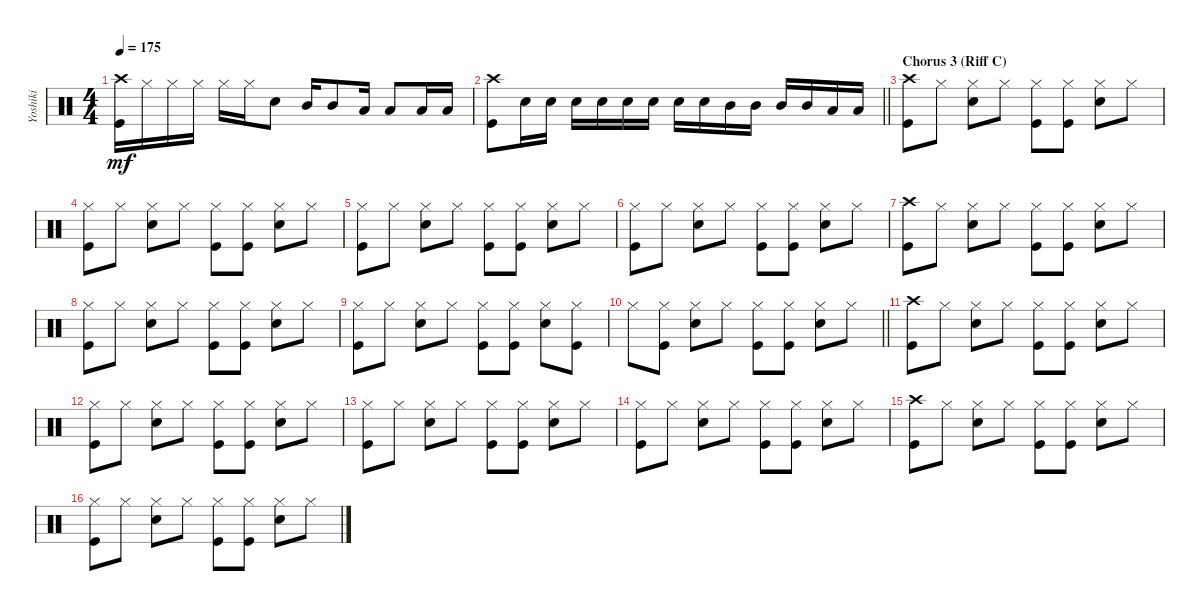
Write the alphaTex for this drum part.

\track ("Yoshiki" "Yoshiki") {instrument percussion}
\staff {score}
\articulation defaults
\ts (4 4)
\tempo 175
\clef neutral
\ks c
("Crash high (hit)" "Kick (hit)").16{dy mf} "Hi-Hat (closed)".16 "Hi-Hat (closed)".16 "Hi-Hat (closed)".16 "Hi-Hat (closed)".16 "Hi-Hat (closed)".16 "Snare (hit) 2".8 "Mid Tom (hit)".16 "Mid Tom (hit)".8 "Low Tom (hit)".16 "Low Tom (hit)".8 "Low Tom (hit)".16 "Low Tom (hit)".16 |
\barLineRight lightlight
("Crash high (hit)" "Kick (hit)").8 "Snare (hit) 2".16 "Snare (hit) 2".16 "Snare (hit) 2".16 "Snare (hit) 2".16 "Snare (hit) 2".16 "Snare (hit) 2".16 "Snare (hit) 2".16 "Snare (hit) 2".16 "Mid Tom (hit)".16 "Mid Tom (hit)".16 "Mid Tom (hit)".16 "Mid Tom (hit)".16 "Low Tom (hit)".16 "Low Tom (hit)".16 |
\section ("" "Chorus 3 (Riff C)")
("Crash high (hit)" "Kick (hit)").8 "Hi-Hat (closed)".8 ("Snare (hit) 2" "Hi-Hat (closed)").8 "Hi-Hat (closed)".8 ("Hi-Hat (closed)" "Kick (hit)").8 ("Hi-Hat (closed)" "Kick (hit)").8 ("Snare (hit) 2" "Hi-Hat (closed)").8 "Hi-Hat (closed)".8 |
("Hi-Hat (closed)" "Kick (hit)").8 "Hi-Hat (closed)".8 ("Snare (hit) 2" "Hi-Hat (closed)").8 "Hi-Hat (closed)".8 ("Hi-Hat (closed)" "Kick (hit)").8 ("Hi-Hat (closed)" "Kick (hit)").8 ("Snare (hit) 2" "Hi-Hat (closed)").8 "Hi-Hat (closed)".8 |
("Hi-Hat (closed)" "Kick (hit)").8 "Hi-Hat (closed)".8 ("Snare (hit) 2" "Hi-Hat (closed)").8 "Hi-Hat (closed)".8 ("Hi-Hat (closed)" "Kick (hit)").8 ("Hi-Hat (closed)" "Kick (hit)").8 ("Snare (hit) 2" "Hi-Hat (closed)").8 "Hi-Hat (closed)".8 |
("Hi-Hat (closed)" "Kick (hit)").8 "Hi-Hat (closed)".8 ("Snare (hit) 2" "Hi-Hat (closed)").8 "Hi-Hat (closed)".8 ("Hi-Hat (closed)" "Kick (hit)").8 ("Hi-Hat (closed)" "Kick (hit)").8 ("Snare (hit) 2" "Hi-Hat (closed)").8 "Hi-Hat (closed)".8 |
("Crash high (hit)" "Kick (hit)").8 "Hi-Hat (closed)".8 ("Snare (hit) 2" "Hi-Hat (closed)").8 "Hi-Hat (closed)".8 ("Hi-Hat (closed)" "Kick (hit)").8 ("Hi-Hat (closed)" "Kick (hit)").8 ("Snare (hit) 2" "Hi-Hat (closed)").8 "Hi-Hat (closed)".8 |
("Hi-Hat (closed)" "Kick (hit)").8 "Hi-Hat (closed)".8 ("Snare (hit) 2" "Hi-Hat (closed)").8 "Hi-Hat (closed)".8 ("Hi-Hat (closed)" "Kick (hit)").8 ("Hi-Hat (closed)" "Kick (hit)").8 ("Snare (hit) 2" "Hi-Hat (closed)").8 "Hi-Hat (closed)".8 |
("Hi-Hat (closed)" "Kick (hit)").8 "Hi-Hat (closed)".8 ("Snare (hit) 2" "Hi-Hat (closed)").8 "Hi-Hat (closed)".8 ("Hi-Hat (closed)" "Kick (hit)").8 ("Hi-Hat (closed)" "Kick (hit)").8 ("Snare (hit) 2" "Hi-Hat (closed)").8 ("Hi-Hat (closed)" "Kick (hit)").8 |
\barLineRight lightlight "Hi-Hat (closed)".8
("Hi-Hat (closed)" "Kick (hit)").8 ("Snare (hit) 2" "Hi-Hat (closed)").8 "Hi-Hat (closed)".8 ("Kick (hit)" "Hi-Hat (closed)").8 ("Kick (hit)" "Hi-Hat (closed)").8 ("Snare (hit) 2" "Hi-Hat (closed)").8 "Hi-Hat (closed)".8 |
("Crash high (hit)" "Kick (hit)").8 "Hi-Hat (closed)".8 ("Snare (hit) 2" "Hi-Hat (closed)").8 "Hi-Hat (closed)".8 ("Hi-Hat (closed)" "Kick (hit)").8 ("Hi-Hat (closed)" "Kick (hit)").8 ("Snare (hit) 2" "Hi-Hat (closed)").8 "Hi-Hat (closed)".8 |
("Hi-Hat (closed)" "Kick (hit)").8 "Hi-Hat (closed)".8 ("Snare (hit) 2" "Hi-Hat (closed)").8 "Hi-Hat (closed)".8 ("Hi-Hat (closed)" "Kick (hit)").8 ("Hi-Hat (closed)" "Kick (hit)").8 ("Snare (hit) 2" "Hi-Hat (closed)").8 "Hi-Hat (closed)".8 |
("Hi-Hat (closed)" "Kick (hit)").8 "Hi-Hat (closed)".8 ("Snare (hit) 2" "Hi-Hat (closed)").8 "Hi-Hat (closed)".8 ("Hi-Hat (closed)" "Kick (hit)").8 ("Hi-Hat (closed)" "Kick (hit)").8 ("Snare (hit) 2" "Hi-Hat (closed)").8 "Hi-Hat (closed)".8 |
("Hi-Hat (closed)" "Kick (hit)").8 "Hi-Hat (closed)".8 ("Snare (hit) 2" "Hi-Hat (closed)").8 "Hi-Hat (closed)".8 ("Hi-Hat (closed)" "Kick (hit)").8 ("Hi-Hat (closed)" "Kick (hit)").8 ("Snare (hit) 2" "Hi-Hat (closed)").8 "Hi-Hat (closed)".8 |
("Crash high (hit)" "Kick (hit)").8 "Hi-Hat (closed)".8 ("Snare (hit) 2" "Hi-Hat (closed)").8 "Hi-Hat (closed)".8 ("Hi-Hat (closed)" "Kick (hit)").8 ("Hi-Hat (closed)" "Kick (hit)").8 ("Snare (hit) 2" "Hi-Hat (closed)").8 "Hi-Hat (closed)".8 |
("Hi-Hat (closed)" "Kick (hit)").8 "Hi-Hat (closed)".8 ("Snare (hit) 2" "Hi-Hat (closed)").8 "Hi-Hat (closed)".8 ("Hi-Hat (closed)" "Kick (hit)").8 ("Hi-Hat (closed)" "Kick (hit)").8 ("Snare (hit) 2" "Hi-Hat (closed)").8 "Hi-Hat (closed)".8
